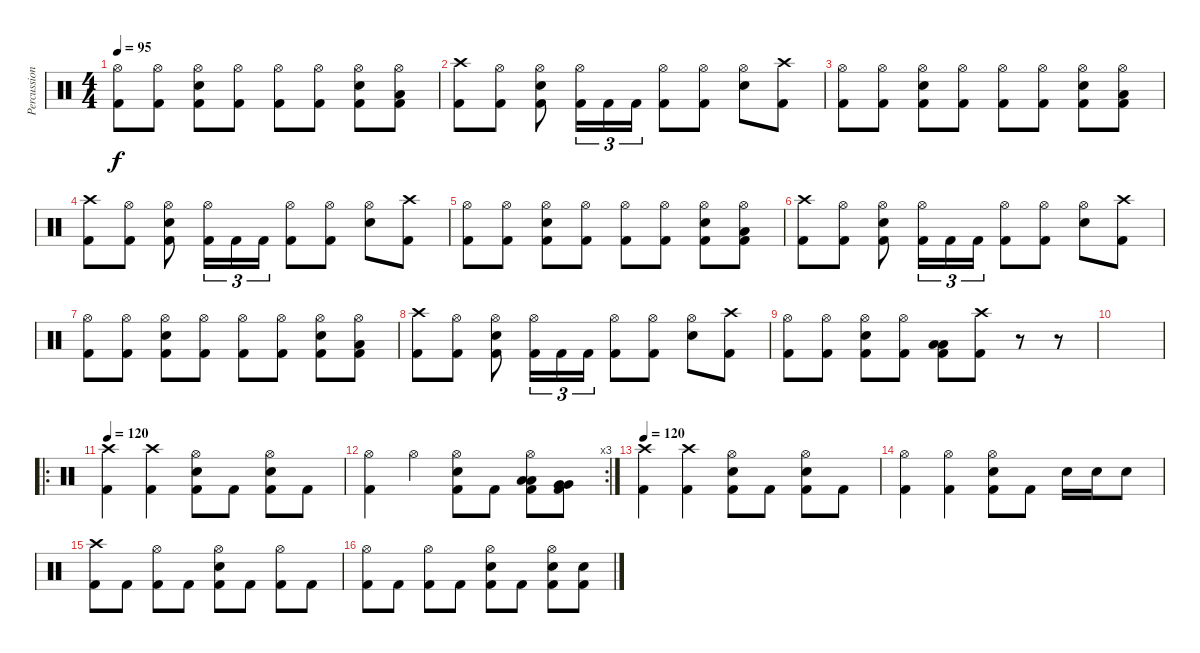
\track ("Percussion" "Percussion") {instrument percussion}
\staff {score}
\articulation defaults
\ts (4 4)
\tempo 95
\clef neutral
\ks c
("Hi-Hat (open)" "Kick (hit) 2").8{dy f} ("Hi-Hat (open)" "Kick (hit) 2").8 ("Hi-Hat (open)" "Snare (hit) 2" "Kick (hit) 2").8 ("Hi-Hat (open)" "Kick (hit) 2").8 ("Hi-Hat (open)" "Kick (hit) 2").8 ("Hi-Hat (open)" "Kick (hit) 2").8 ("Hi-Hat (open)" "Snare (hit) 2" "Kick (hit) 2").8 ("Hi-Hat (open)" "Low Tom (hit)" "Kick (hit) 2").8 |
("Crash high (hit)" "Kick (hit) 2").8 ("Hi-Hat (open)" "Kick (hit) 2").8 ("Hi-Hat (open)" "Snare (hit) 2" "Kick (hit) 2").8 ("Hi-Hat (open)" "Kick (hit) 2").16{tu (3 2)} "Kick (hit) 2".16{tu (3 2)} "Kick (hit) 2".16{tu (3 2)} ("Hi-Hat (open)" "Kick (hit) 2").8 ("Hi-Hat (open)" "Kick (hit) 2").8 ("Hi-Hat (open)" "Snare (hit) 2").8 ("Crash high (hit)" "Kick (hit) 2").8 |
("Hi-Hat (open)" "Kick (hit) 2").8 ("Hi-Hat (open)" "Kick (hit) 2").8 ("Hi-Hat (open)" "Snare (hit) 2" "Kick (hit) 2").8 ("Hi-Hat (open)" "Kick (hit) 2").8 ("Hi-Hat (open)" "Kick (hit) 2").8 ("Hi-Hat (open)" "Kick (hit) 2").8 ("Hi-Hat (open)" "Snare (hit) 2" "Kick (hit) 2").8 ("Hi-Hat (open)" "Low Tom (hit)" "Kick (hit) 2").8 |
("Crash high (hit)" "Kick (hit) 2").8 ("Hi-Hat (open)" "Kick (hit) 2").8 ("Hi-Hat (open)" "Snare (hit) 2" "Kick (hit) 2").8 ("Hi-Hat (open)" "Kick (hit) 2").16{tu (3 2)} "Kick (hit) 2".16{tu (3 2)} "Kick (hit) 2".16{tu (3 2)} ("Hi-Hat (open)" "Kick (hit) 2").8 ("Hi-Hat (open)" "Kick (hit) 2").8 ("Hi-Hat (open)" "Snare (hit) 2").8 ("Crash high (hit)" "Kick (hit) 2").8 |
("Hi-Hat (open)" "Kick (hit) 2").8 ("Hi-Hat (open)" "Kick (hit) 2").8 ("Hi-Hat (open)" "Snare (hit) 2" "Kick (hit) 2").8 ("Hi-Hat (open)" "Kick (hit) 2").8 ("Hi-Hat (open)" "Kick (hit) 2").8 ("Hi-Hat (open)" "Kick (hit) 2").8 ("Hi-Hat (open)" "Snare (hit) 2" "Kick (hit) 2").8 ("Hi-Hat (open)" "Low Tom (hit)" "Kick (hit) 2").8 |
("Crash high (hit)" "Kick (hit) 2").8 ("Hi-Hat (open)" "Kick (hit) 2").8 ("Hi-Hat (open)" "Snare (hit) 2" "Kick (hit) 2").8 ("Hi-Hat (open)" "Kick (hit) 2").16{tu (3 2)} "Kick (hit) 2".16{tu (3 2)} "Kick (hit) 2".16{tu (3 2)} ("Hi-Hat (open)" "Kick (hit) 2").8 ("Hi-Hat (open)" "Kick (hit) 2").8 ("Hi-Hat (open)" "Snare (hit) 2").8 ("Crash high (hit)" "Kick (hit) 2").8 |
("Hi-Hat (open)" "Kick (hit) 2").8 ("Hi-Hat (open)" "Kick (hit) 2").8 ("Hi-Hat (open)" "Snare (hit) 2" "Kick (hit) 2").8 ("Hi-Hat (open)" "Kick (hit) 2").8 ("Hi-Hat (open)" "Kick (hit) 2").8 ("Hi-Hat (open)" "Kick (hit) 2").8 ("Hi-Hat (open)" "Snare (hit) 2" "Kick (hit) 2").8 ("Hi-Hat (open)" "Low Tom (hit)" "Kick (hit) 2").8 |
("Crash high (hit)" "Kick (hit) 2").8 ("Hi-Hat (open)" "Kick (hit) 2").8 ("Hi-Hat (open)" "Snare (hit) 2" "Kick (hit) 2").8 ("Hi-Hat (open)" "Kick (hit) 2").16{tu (3 2)} "Kick (hit) 2".16{tu (3 2)} "Kick (hit) 2".16{tu (3 2)} ("Hi-Hat (open)" "Kick (hit) 2").8 ("Hi-Hat (open)" "Kick (hit) 2").8 ("Hi-Hat (open)" "Snare (hit) 2").8 ("Crash high (hit)" "Kick (hit) 2").8 |
("Hi-Hat (open)" "Kick (hit) 2").8 ("Hi-Hat (open)" "Kick (hit) 2").8 ("Hi-Hat (open)" "Snare (hit) 2" "Kick (hit) 2").8 ("Hi-Hat (open)" "Kick (hit) 2").8 ("Low Tom (hit)" "Low Tom (hit)" "Kick (hit) 2").8 ("Crash high (hit)" "Kick (hit) 2").8 r.8 r.8 |
|
\ro
\tempo 120
("Crash high (hit)" "Kick (hit) 2").4 ("Crash high (hit)" "Kick (hit) 2").4 ("Hi-Hat (open)" "Snare (hit) 2" "Kick (hit) 2").8 "Kick (hit) 2".8 ("Hi-Hat (open)" "Snare (hit) 2" "Kick (hit) 2").8 "Kick (hit) 2".8 |
\rc 3
("Hi-Hat (open)" "Kick (hit) 2").4 "Hi-Hat (open)".4 ("Hi-Hat (open)" "Snare (hit) 2" "Kick (hit) 2").8 "Kick (hit) 2".8 ("Hi-Hat (open)" "Low Tom (hit)" "Low Tom (hit)" "Kick (hit) 2").8 ("Very Low Tom (hit)" "Very Low Tom (hit)" "Kick (hit) 2").8 |
\tempo 120
("Crash high (hit)" "Kick (hit) 2").4 ("Crash high (hit)" "Kick (hit) 2").4 ("Hi-Hat (open)" "Snare (hit) 2" "Kick (hit) 2").8 "Kick (hit) 2".8 ("Hi-Hat (open)" "Snare (hit) 2" "Kick (hit) 2").8 "Kick (hit) 2".8 |
("Hi-Hat (open)" "Kick (hit) 2").4 ("Hi-Hat (open)" "Kick (hit) 2").4 ("Hi-Hat (open)" "Snare (hit) 2" "Kick (hit) 2").8 "Kick (hit) 2".8 "Snare (hit) 2".16 "Snare (hit) 2".16 "Snare (hit) 2".8 |
("Crash high (hit)" "Kick (hit) 2").8 "Kick (hit) 2".8 ("Hi-Hat (open)" "Kick (hit) 2").8 "Kick (hit) 2".8 ("Hi-Hat (open)" "Snare (hit) 2" "Kick (hit) 2").8 "Kick (hit) 2".8 ("Hi-Hat (open)" "Kick (hit) 2").8 "Kick (hit) 2".8 |
("Hi-Hat (open)" "Kick (hit) 2").8 "Kick (hit) 2".8 ("Hi-Hat (open)" "Kick (hit) 2").8 "Kick (hit) 2".8 ("Hi-Hat (open)" "Snare (hit) 2" "Kick (hit) 2").8 "Kick (hit) 2".8 ("Hi-Hat (open)" "Snare (hit) 2" "Kick (hit) 2").8 ("Snare (hit) 2" "Kick (hit) 2").8
